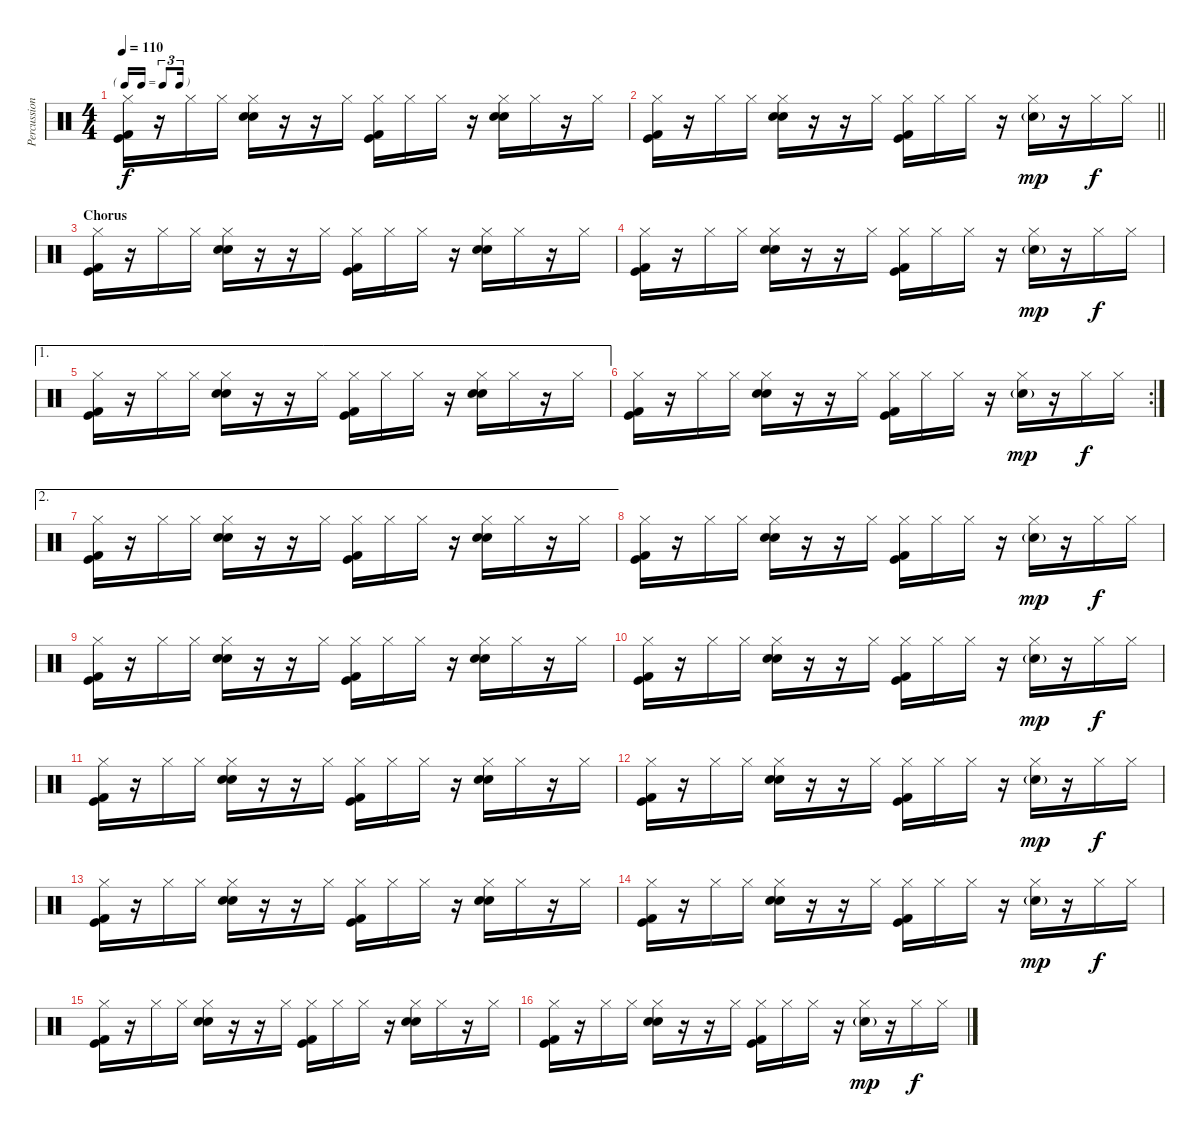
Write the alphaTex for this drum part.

\track ("Percussion" "Percussion") {instrument percussion}
\staff {score}
\articulation defaults
\ts (4 4)
\tf triplet16th
\tempo 110
\clef neutral
\ks c
("Kick (hit) 2" "Kick (hit)" "Hi-Hat (closed)").16{dy f} r.16 "Hi-Hat (closed)".16 "Hi-Hat (closed)".16 ("Electric Snare (hit)" "Snare (hit) 2" "Hi-Hat (closed)").16 r.16 r.16 "Hi-Hat (closed)".16 ("Kick (hit) 2" "Kick (hit)" "Hi-Hat (closed)").16 "Hi-Hat (closed)".16 "Hi-Hat (closed)".16 r.16 ("Electric Snare (hit)" "Snare (hit) 2" "Hi-Hat (closed)").16 "Hi-Hat (closed)".16 r.16 "Hi-Hat (closed)".16 |
\barLineRight lightlight
("Kick (hit) 2" "Kick (hit)" "Hi-Hat (closed)").16 r.16 "Hi-Hat (closed)".16 "Hi-Hat (closed)".16 ("Electric Snare (hit)" "Snare (hit) 2" "Hi-Hat (closed)").16 r.16 r.16 "Hi-Hat (closed)".16 ("Kick (hit) 2" "Kick (hit)" "Hi-Hat (closed)").16 "Hi-Hat (closed)".16 "Hi-Hat (closed)".16 r.16 ("Hi-Hat (closed)" "Snare (hit) 2"{g}).16{dy mp} r.16 "Hi-Hat (closed)".16{dy f} "Hi-Hat (closed)".16 |
\section ("" "Chorus")
("Kick (hit) 2" "Kick (hit)" "Hi-Hat (closed)").16 r.16 "Hi-Hat (closed)".16 "Hi-Hat (closed)".16 ("Electric Snare (hit)" "Snare (hit) 2" "Hi-Hat (closed)").16 r.16 r.16 "Hi-Hat (closed)".16 ("Kick (hit) 2" "Kick (hit)" "Hi-Hat (closed)").16 "Hi-Hat (closed)".16 "Hi-Hat (closed)".16 r.16 ("Electric Snare (hit)" "Snare (hit) 2" "Hi-Hat (closed)").16 "Hi-Hat (closed)".16 r.16 "Hi-Hat (closed)".16 |
("Kick (hit) 2" "Kick (hit)" "Hi-Hat (closed)").16 r.16 "Hi-Hat (closed)".16 "Hi-Hat (closed)".16 ("Electric Snare (hit)" "Snare (hit) 2" "Hi-Hat (closed)").16 r.16 r.16 "Hi-Hat (closed)".16 ("Kick (hit) 2" "Kick (hit)" "Hi-Hat (closed)").16 "Hi-Hat (closed)".16 "Hi-Hat (closed)".16 r.16 ("Hi-Hat (closed)" "Snare (hit) 2"{g}).16{dy mp} r.16 "Hi-Hat (closed)".16{dy f} "Hi-Hat (closed)".16 |
\ae 1
("Kick (hit) 2" "Kick (hit)" "Hi-Hat (closed)").16 r.16 "Hi-Hat (closed)".16 "Hi-Hat (closed)".16 ("Electric Snare (hit)" "Snare (hit) 2" "Hi-Hat (closed)").16 r.16 r.16 "Hi-Hat (closed)".16 ("Kick (hit) 2" "Kick (hit)" "Hi-Hat (closed)").16 "Hi-Hat (closed)".16 "Hi-Hat (closed)".16 r.16 ("Electric Snare (hit)" "Snare (hit) 2" "Hi-Hat (closed)").16 "Hi-Hat (closed)".16 r.16 "Hi-Hat (closed)".16 |
\rc 2
("Kick (hit) 2" "Kick (hit)" "Hi-Hat (closed)").16 r.16 "Hi-Hat (closed)".16 "Hi-Hat (closed)".16 ("Electric Snare (hit)" "Snare (hit) 2" "Hi-Hat (closed)").16 r.16 r.16 "Hi-Hat (closed)".16 ("Kick (hit) 2" "Kick (hit)" "Hi-Hat (closed)").16 "Hi-Hat (closed)".16 "Hi-Hat (closed)".16 r.16 ("Hi-Hat (closed)" "Snare (hit) 2"{g}).16{dy mp} r.16 "Hi-Hat (closed)".16{dy f} "Hi-Hat (closed)".16 |
\ae 2
("Kick (hit) 2" "Kick (hit)" "Hi-Hat (closed)").16 r.16 "Hi-Hat (closed)".16 "Hi-Hat (closed)".16 ("Electric Snare (hit)" "Snare (hit) 2" "Hi-Hat (closed)").16 r.16 r.16 "Hi-Hat (closed)".16 ("Kick (hit) 2" "Kick (hit)" "Hi-Hat (closed)").16 "Hi-Hat (closed)".16 "Hi-Hat (closed)".16 r.16 ("Electric Snare (hit)" "Snare (hit) 2" "Hi-Hat (closed)").16 "Hi-Hat (closed)".16 r.16 "Hi-Hat (closed)".16 |
("Kick (hit) 2" "Kick (hit)" "Hi-Hat (closed)").16 r.16 "Hi-Hat (closed)".16 "Hi-Hat (closed)".16 ("Electric Snare (hit)" "Snare (hit) 2" "Hi-Hat (closed)").16 r.16 r.16 "Hi-Hat (closed)".16 ("Kick (hit) 2" "Kick (hit)" "Hi-Hat (closed)").16 "Hi-Hat (closed)".16 "Hi-Hat (closed)".16 r.16 ("Hi-Hat (closed)" "Snare (hit) 2"{g}).16{dy mp} r.16 "Hi-Hat (closed)".16{dy f} "Hi-Hat (closed)".16 |
("Kick (hit) 2" "Kick (hit)" "Hi-Hat (closed)").16 r.16 "Hi-Hat (closed)".16 "Hi-Hat (closed)".16 ("Electric Snare (hit)" "Snare (hit) 2" "Hi-Hat (closed)").16 r.16 r.16 "Hi-Hat (closed)".16 ("Kick (hit) 2" "Kick (hit)" "Hi-Hat (closed)").16 "Hi-Hat (closed)".16 "Hi-Hat (closed)".16 r.16 ("Electric Snare (hit)" "Snare (hit) 2" "Hi-Hat (closed)").16 "Hi-Hat (closed)".16 r.16 "Hi-Hat (closed)".16 |
("Kick (hit) 2" "Kick (hit)" "Hi-Hat (closed)").16 r.16 "Hi-Hat (closed)".16 "Hi-Hat (closed)".16 ("Electric Snare (hit)" "Snare (hit) 2" "Hi-Hat (closed)").16 r.16 r.16 "Hi-Hat (closed)".16 ("Kick (hit) 2" "Kick (hit)" "Hi-Hat (closed)").16 "Hi-Hat (closed)".16 "Hi-Hat (closed)".16 r.16 ("Hi-Hat (closed)" "Snare (hit) 2"{g}).16{dy mp} r.16 "Hi-Hat (closed)".16{dy f} "Hi-Hat (closed)".16 |
("Kick (hit) 2" "Kick (hit)" "Hi-Hat (closed)").16 r.16 "Hi-Hat (closed)".16 "Hi-Hat (closed)".16 ("Electric Snare (hit)" "Snare (hit) 2" "Hi-Hat (closed)").16 r.16 r.16 "Hi-Hat (closed)".16 ("Kick (hit) 2" "Kick (hit)" "Hi-Hat (closed)").16 "Hi-Hat (closed)".16 "Hi-Hat (closed)".16 r.16 ("Electric Snare (hit)" "Snare (hit) 2" "Hi-Hat (closed)").16 "Hi-Hat (closed)".16 r.16 "Hi-Hat (closed)".16 |
("Kick (hit) 2" "Kick (hit)" "Hi-Hat (closed)").16 r.16 "Hi-Hat (closed)".16 "Hi-Hat (closed)".16 ("Electric Snare (hit)" "Snare (hit) 2" "Hi-Hat (closed)").16 r.16 r.16 "Hi-Hat (closed)".16 ("Kick (hit) 2" "Kick (hit)" "Hi-Hat (closed)").16 "Hi-Hat (closed)".16 "Hi-Hat (closed)".16 r.16 ("Hi-Hat (closed)" "Snare (hit) 2"{g}).16{dy mp} r.16 "Hi-Hat (closed)".16{dy f} "Hi-Hat (closed)".16 |
("Kick (hit) 2" "Kick (hit)" "Hi-Hat (closed)").16 r.16 "Hi-Hat (closed)".16 "Hi-Hat (closed)".16 ("Electric Snare (hit)" "Snare (hit) 2" "Hi-Hat (closed)").16 r.16 r.16 "Hi-Hat (closed)".16 ("Kick (hit) 2" "Kick (hit)" "Hi-Hat (closed)").16 "Hi-Hat (closed)".16 "Hi-Hat (closed)".16 r.16 ("Electric Snare (hit)" "Snare (hit) 2" "Hi-Hat (closed)").16 "Hi-Hat (closed)".16 r.16 "Hi-Hat (closed)".16 |
("Kick (hit) 2" "Kick (hit)" "Hi-Hat (closed)").16 r.16 "Hi-Hat (closed)".16 "Hi-Hat (closed)".16 ("Electric Snare (hit)" "Snare (hit) 2" "Hi-Hat (closed)").16 r.16 r.16 "Hi-Hat (closed)".16 ("Kick (hit) 2" "Kick (hit)" "Hi-Hat (closed)").16 "Hi-Hat (closed)".16 "Hi-Hat (closed)".16 r.16 ("Hi-Hat (closed)" "Snare (hit) 2"{g}).16{dy mp} r.16 "Hi-Hat (closed)".16{dy f} "Hi-Hat (closed)".16 |
("Kick (hit) 2" "Kick (hit)" "Hi-Hat (closed)").16 r.16 "Hi-Hat (closed)".16 "Hi-Hat (closed)".16 ("Electric Snare (hit)" "Snare (hit) 2" "Hi-Hat (closed)").16 r.16 r.16 "Hi-Hat (closed)".16 ("Kick (hit) 2" "Kick (hit)" "Hi-Hat (closed)").16 "Hi-Hat (closed)".16 "Hi-Hat (closed)".16 r.16 ("Electric Snare (hit)" "Snare (hit) 2" "Hi-Hat (closed)").16 "Hi-Hat (closed)".16 r.16 "Hi-Hat (closed)".16 |
("Kick (hit) 2" "Kick (hit)" "Hi-Hat (closed)").16 r.16 "Hi-Hat (closed)".16 "Hi-Hat (closed)".16 ("Electric Snare (hit)" "Snare (hit) 2" "Hi-Hat (closed)").16 r.16 r.16 "Hi-Hat (closed)".16 ("Kick (hit) 2" "Kick (hit)" "Hi-Hat (closed)").16 "Hi-Hat (closed)".16 "Hi-Hat (closed)".16 r.16 ("Hi-Hat (closed)" "Snare (hit) 2"{g}).16{dy mp} r.16 "Hi-Hat (closed)".16{dy f} "Hi-Hat (closed)".16
